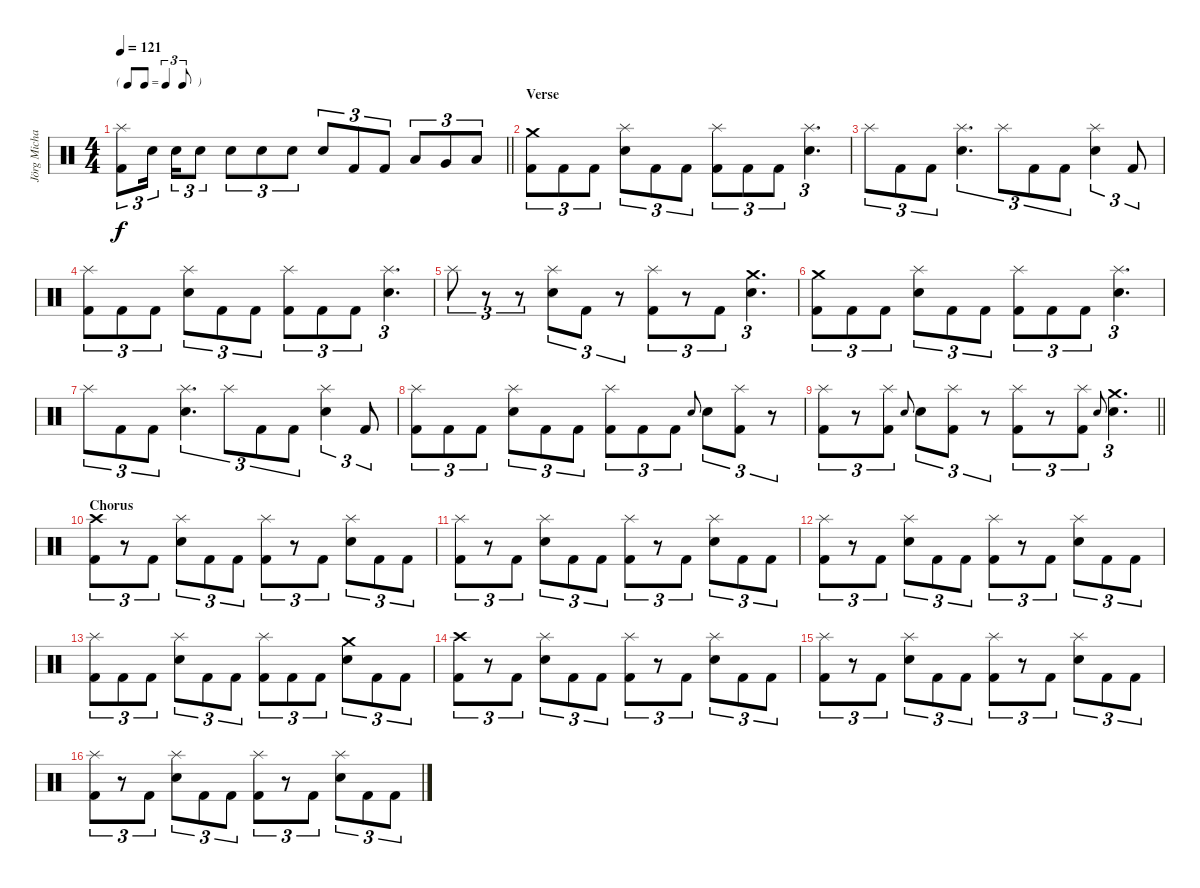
\track ("Jörg Michael" "Jörg Micha") {instrument percussion}
\staff {score}
\articulation defaults
\ts (4 4)
\tf triplet8th
\tempo 121
\clef neutral
\barLineRight lightlight
\ks c
("Splash (hit)" "Kick (hit) 2").8{tu (3 2) dy f} "Snare (hit) 2".16{tu (3 2) beam splitsecondary} "Snare (hit) 2".16{tu (3 2)} "Snare (hit) 2".8{tu (3 2)} "Snare (hit) 2".8{tu (3 2)} "Snare (hit) 2".8{tu (3 2)} "Snare (hit) 2".8{tu (3 2)} "Snare (hit) 2".8{tu (3 2)} "Kick (hit) 2".8{tu (3 2)} "Kick (hit) 2".8{tu (3 2)} "Low Tom (hit)".8{tu (3 2)} "Very Low Tom (hit)".8{tu (3 2)} "Low Floor Tom (hit)".8{tu (3 2)} |
\section ("" "Verse")
("Crash medium (hit)" "Kick (hit) 2").8{tu (3 2)} "Kick (hit) 2".8{tu (3 2)} "Kick (hit) 2".8{tu (3 2)} ("Splash (hit)" "Snare (hit) 2").8{tu (3 2)} "Kick (hit) 2".8{tu (3 2)} "Kick (hit) 2".8{tu (3 2)} ("Splash (hit)" "Kick (hit) 2").8{tu (3 2)} "Kick (hit) 2".8{tu (3 2)} "Kick (hit) 2".8{tu (3 2)} ("Splash (hit)" "Snare (hit) 2").4{d tu (3 2)} |
"Splash (hit)".8{tu (3 2)} "Kick (hit) 2".8{tu (3 2)} "Kick (hit) 2".8{tu (3 2)} ("Splash (hit)" "Snare (hit) 2").4{d tu (3 2)} "Splash (hit)".8{tu (3 2)} "Kick (hit) 2".8{tu (3 2)} "Kick (hit) 2".8{tu (3 2)} ("Splash (hit)" "Snare (hit) 2").4{tu (3 2)} "Kick (hit) 2".8{tu (3 2)} |
("Splash (hit)" "Kick (hit) 2").8{tu (3 2)} "Kick (hit) 2".8{tu (3 2)} "Kick (hit) 2".8{tu (3 2)} ("Splash (hit)" "Snare (hit) 2").8{tu (3 2)} "Kick (hit) 2".8{tu (3 2)} "Kick (hit) 2".8{tu (3 2)} ("Splash (hit)" "Kick (hit) 2").8{tu (3 2)} "Kick (hit) 2".8{tu (3 2)} "Kick (hit) 2".8{tu (3 2)} ("Splash (hit)" "Snare (hit) 2").4{d tu (3 2)} |
"Splash (hit)".8{tu (3 2)} r.8{tu (3 2)} r.8{tu (3 2)} ("Splash (hit)" "Snare (hit) 2").8{tu (3 2)} "Kick (hit) 2".8{tu (3 2)} r.8{tu (3 2)} ("Splash (hit)" "Kick (hit) 2").8{tu (3 2)} r.8{tu (3 2)} "Kick (hit) 2".8{tu (3 2)} ("Crash medium (hit)" "Snare (hit) 2").4{d tu (3 2)} |
("Crash medium (hit)" "Kick (hit) 2").8{tu (3 2)} "Kick (hit) 2".8{tu (3 2)} "Kick (hit) 2".8{tu (3 2)} ("Splash (hit)" "Snare (hit) 2").8{tu (3 2)} "Kick (hit) 2".8{tu (3 2)} "Kick (hit) 2".8{tu (3 2)} ("Splash (hit)" "Kick (hit) 2").8{tu (3 2)} "Kick (hit) 2".8{tu (3 2)} "Kick (hit) 2".8{tu (3 2)} ("Splash (hit)" "Snare (hit) 2").4{d tu (3 2)} |
"Splash (hit)".8{tu (3 2)} "Kick (hit) 2".8{tu (3 2)} "Kick (hit) 2".8{tu (3 2)} ("Splash (hit)" "Snare (hit) 2").4{d tu (3 2)} "Splash (hit)".8{tu (3 2)} "Kick (hit) 2".8{tu (3 2)} "Kick (hit) 2".8{tu (3 2)} ("Splash (hit)" "Snare (hit) 2").4{tu (3 2)} "Kick (hit) 2".8{tu (3 2)} |
("Splash (hit)" "Kick (hit) 2").8{tu (3 2)} "Kick (hit) 2".8{tu (3 2)} "Kick (hit) 2".8{tu (3 2)} ("Splash (hit)" "Snare (hit) 2").8{tu (3 2)} "Kick (hit) 2".8{tu (3 2)} "Kick (hit) 2".8{tu (3 2)} ("Splash (hit)" "Kick (hit) 2").8{tu (3 2)} "Kick (hit) 2".8{tu (3 2)} "Kick (hit) 2".8{tu (3 2)} "Snare (hit) 2".8{gr onbeat} "Snare (hit) 2".8{tu (3 2)} ("Splash (hit)" "Kick (hit) 2").8{tu (3 2)} r.8{tu (3 2)} |
\barLineRight lightlight
("Splash (hit)" "Kick (hit) 2").8{tu (3 2)} r.8{tu (3 2)} ("Splash (hit)" "Kick (hit) 2").8{tu (3 2)} "Snare (hit) 2".8{gr onbeat} "Snare (hit) 2".8{tu (3 2)} ("Splash (hit)" "Kick (hit) 2").8{tu (3 2)} r.8{tu (3 2)} ("Splash (hit)" "Kick (hit) 2").8{tu (3 2)} r.8{tu (3 2)} ("Splash (hit)" "Kick (hit) 2").8{tu (3 2)} "Snare (hit) 2".8{gr onbeat} ("Crash medium (hit)" "Snare (hit) 2").4{d tu (3 2)} |
\section ("" "Chorus")
("Crash high (hit)" "Kick (hit) 2").8{tu (3 2)} r.8{tu (3 2)} "Kick (hit) 2".8{tu (3 2)} ("Splash (hit)" "Snare (hit) 2").8{tu (3 2)} "Kick (hit) 2".8{tu (3 2)} "Kick (hit) 2".8{tu (3 2)} ("Splash (hit)" "Kick (hit) 2").8{tu (3 2)} r.8{tu (3 2)} "Kick (hit) 2".8{tu (3 2)} ("Splash (hit)" "Snare (hit) 2").8{tu (3 2)} "Kick (hit) 2".8{tu (3 2)} "Kick (hit) 2".8{tu (3 2)} |
("Splash (hit)" "Kick (hit) 2").8{tu (3 2)} r.8{tu (3 2)} "Kick (hit) 2".8{tu (3 2)} ("Splash (hit)" "Snare (hit) 2").8{tu (3 2)} "Kick (hit) 2".8{tu (3 2)} "Kick (hit) 2".8{tu (3 2)} ("Splash (hit)" "Kick (hit) 2").8{tu (3 2)} r.8{tu (3 2)} "Kick (hit) 2".8{tu (3 2)} ("Splash (hit)" "Snare (hit) 2").8{tu (3 2)} "Kick (hit) 2".8{tu (3 2)} "Kick (hit) 2".8{tu (3 2)} |
("Splash (hit)" "Kick (hit) 2").8{tu (3 2)} r.8{tu (3 2)} "Kick (hit) 2".8{tu (3 2)} ("Splash (hit)" "Snare (hit) 2").8{tu (3 2)} "Kick (hit) 2".8{tu (3 2)} "Kick (hit) 2".8{tu (3 2)} ("Splash (hit)" "Kick (hit) 2").8{tu (3 2)} r.8{tu (3 2)} "Kick (hit) 2".8{tu (3 2)} ("Splash (hit)" "Snare (hit) 2").8{tu (3 2)} "Kick (hit) 2".8{tu (3 2)} "Kick (hit) 2".8{tu (3 2)} |
("Splash (hit)" "Kick (hit) 2").8{tu (3 2)} "Kick (hit) 2".8{tu (3 2)} "Kick (hit) 2".8{tu (3 2)} ("Splash (hit)" "Snare (hit) 2").8{tu (3 2)} "Kick (hit) 2".8{tu (3 2)} "Kick (hit) 2".8{tu (3 2)} ("Splash (hit)" "Kick (hit) 2").8{tu (3 2)} "Kick (hit) 2".8{tu (3 2)} "Kick (hit) 2".8{tu (3 2)} ("Crash medium (hit)" "Snare (hit) 2").8{tu (3 2)} "Kick (hit) 2".8{tu (3 2)} "Kick (hit) 2".8{tu (3 2)} |
("Crash high (hit)" "Kick (hit) 2").8{tu (3 2)} r.8{tu (3 2)} "Kick (hit) 2".8{tu (3 2)} ("Splash (hit)" "Snare (hit) 2").8{tu (3 2)} "Kick (hit) 2".8{tu (3 2)} "Kick (hit) 2".8{tu (3 2)} ("Splash (hit)" "Kick (hit) 2").8{tu (3 2)} r.8{tu (3 2)} "Kick (hit) 2".8{tu (3 2)} ("Splash (hit)" "Snare (hit) 2").8{tu (3 2)} "Kick (hit) 2".8{tu (3 2)} "Kick (hit) 2".8{tu (3 2)} |
("Splash (hit)" "Kick (hit) 2").8{tu (3 2)} r.8{tu (3 2)} "Kick (hit) 2".8{tu (3 2)} ("Splash (hit)" "Snare (hit) 2").8{tu (3 2)} "Kick (hit) 2".8{tu (3 2)} "Kick (hit) 2".8{tu (3 2)} ("Splash (hit)" "Kick (hit) 2").8{tu (3 2)} r.8{tu (3 2)} "Kick (hit) 2".8{tu (3 2)} ("Splash (hit)" "Snare (hit) 2").8{tu (3 2)} "Kick (hit) 2".8{tu (3 2)} "Kick (hit) 2".8{tu (3 2)} |
("Splash (hit)" "Kick (hit) 2").8{tu (3 2)} r.8{tu (3 2)} "Kick (hit) 2".8{tu (3 2)} ("Splash (hit)" "Snare (hit) 2").8{tu (3 2)} "Kick (hit) 2".8{tu (3 2)} "Kick (hit) 2".8{tu (3 2)} ("Splash (hit)" "Kick (hit) 2").8{tu (3 2)} r.8{tu (3 2)} "Kick (hit) 2".8{tu (3 2)} ("Splash (hit)" "Snare (hit) 2").8{tu (3 2)} "Kick (hit) 2".8{tu (3 2)} "Kick (hit) 2".8{tu (3 2)}
